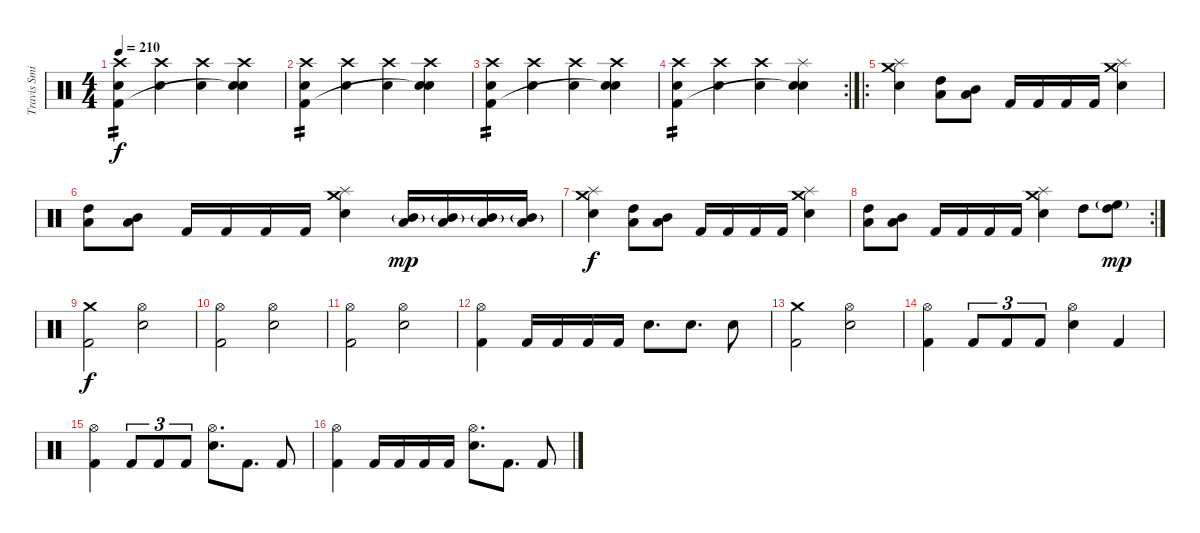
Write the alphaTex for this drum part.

\track ("Travis Smith" "Travis Smi") {instrument percussion}
\staff {score}
\articulation defaults
\ts (4 4)
\tempo 210
\clef neutral
\ks c
("Crash high (hit)" "Electric Snare (hit)" "Kick (hit) 2").4{tp 2 dy f} ("Crash high (hit)" "Electric Snare (hit)").4 ("Crash high (hit)" "Electric Snare (hit)").4 ("Crash high (hit)" "Electric Snare (hit)" "Snare (hit)"{t}).4 |
("Crash high (hit)" "Electric Snare (hit)" "Kick (hit) 2").4{tp 2} ("Crash high (hit)" "Electric Snare (hit)").4 ("Crash high (hit)" "Electric Snare (hit)").4 ("Crash high (hit)" "Electric Snare (hit)" "Snare (hit)"{t}).4 |
("Crash high (hit)" "Electric Snare (hit)" "Kick (hit) 2").4{tp 2} ("Crash high (hit)" "Electric Snare (hit)").4 ("Crash high (hit)" "Electric Snare (hit)").4 ("Crash high (hit)" "Electric Snare (hit)" "Snare (hit)"{t}).4 |
\rc 2
("Crash high (hit)" "Electric Snare (hit)" "Kick (hit) 2").4{tp 2} ("Crash high (hit)" "Electric Snare (hit)").4 ("Crash high (hit)" "Electric Snare (hit)").4 ("Splash (hit)" "Electric Snare (hit)" "Snare (hit)"{t}).4 |
\ro
("Crash medium (hit)" "Splash (hit)" "Electric Snare (hit)").4 ("High Tom (hit)" "Low Tom (hit)").8 ("Mid Tom (hit)" "Low Tom (hit)").8 "Kick (hit) 2".16 "Kick (hit) 2".16 "Kick (hit) 2".16 "Kick (hit) 2".16 ("Crash medium (hit)" "Splash (hit)" "Electric Snare (hit)").4 |
("High Tom (hit)" "Low Tom (hit)").8 ("Mid Tom (hit)" "Low Tom (hit)").8 "Kick (hit) 2".16 "Kick (hit) 2".16 "Kick (hit) 2".16 "Kick (hit) 2".16 ("Crash medium (hit)" "Splash (hit)" "Electric Snare (hit)").4 ("Mid Tom (hit)"{g} "Low Tom (hit)").16{dy mp} ("Mid Tom (hit)"{g} "Low Tom (hit)").16 ("Mid Tom (hit)"{g} "Low Tom (hit)").16 ("Mid Tom (hit)"{g} "Low Tom (hit)").16 |
("Crash medium (hit)" "Splash (hit)" "Electric Snare (hit)").4{dy f} ("High Tom (hit)" "Low Tom (hit)").8 ("Mid Tom (hit)" "Low Tom (hit)").8 "Kick (hit) 2".16 "Kick (hit) 2".16 "Kick (hit) 2".16 "Kick (hit) 2".16 ("Crash medium (hit)" "Splash (hit)" "Electric Snare (hit)").4 |
\rc 2
("High Tom (hit)" "Low Tom (hit)").8 ("Mid Tom (hit)" "Low Tom (hit)").8 "Kick (hit) 2".16 "Kick (hit) 2".16 "Kick (hit) 2".16 "Kick (hit) 2".16 ("Crash medium (hit)" "Splash (hit)" "Electric Snare (hit)").4 "High Tom (hit)".8 ("High Floor Tom (hit)"{g} "High Tom (hit)").8{dy mp} |
("Crash medium (hit)" "Kick (hit) 2").2{dy f} ("Hi-Hat (open)" "Electric Snare (hit)").2 |
("Hi-Hat (open)" "Kick (hit) 2").2 ("Hi-Hat (open)" "Electric Snare (hit)").2 |
("Hi-Hat (open)" "Kick (hit) 2").2 ("Hi-Hat (open)" "Electric Snare (hit)").2 |
("Hi-Hat (open)" "Kick (hit) 2").4 "Kick (hit) 2".16 "Kick (hit) 2".16 "Kick (hit) 2".16 "Kick (hit) 2".16 "Electric Snare (hit)".8{d} "Electric Snare (hit)".8{d} "Electric Snare (hit)".8 |
("Crash medium (hit)" "Kick (hit) 2").2 ("Hi-Hat (open)" "Electric Snare (hit)").2 |
("Hi-Hat (open)" "Kick (hit) 2").4 "Kick (hit) 2".8{tu (3 2)} "Kick (hit) 2".8{tu (3 2)} "Kick (hit) 2".8{tu (3 2)} ("Hi-Hat (open)" "Electric Snare (hit)").4 "Kick (hit) 2".4 |
("Hi-Hat (open)" "Kick (hit) 2").4 "Kick (hit) 2".8{tu (3 2)} "Kick (hit) 2".8{tu (3 2)} "Kick (hit) 2".8{tu (3 2)} ("Hi-Hat (open)" "Electric Snare (hit)").8{d} "Kick (hit) 2".8{d} "Kick (hit) 2".8 |
("Hi-Hat (open)" "Kick (hit) 2").4 "Kick (hit) 2".16 "Kick (hit) 2".16 "Kick (hit) 2".16 "Kick (hit) 2".16 ("Hi-Hat (open)" "Electric Snare (hit)").8{d} "Kick (hit) 2".8{d} "Kick (hit) 2".8
